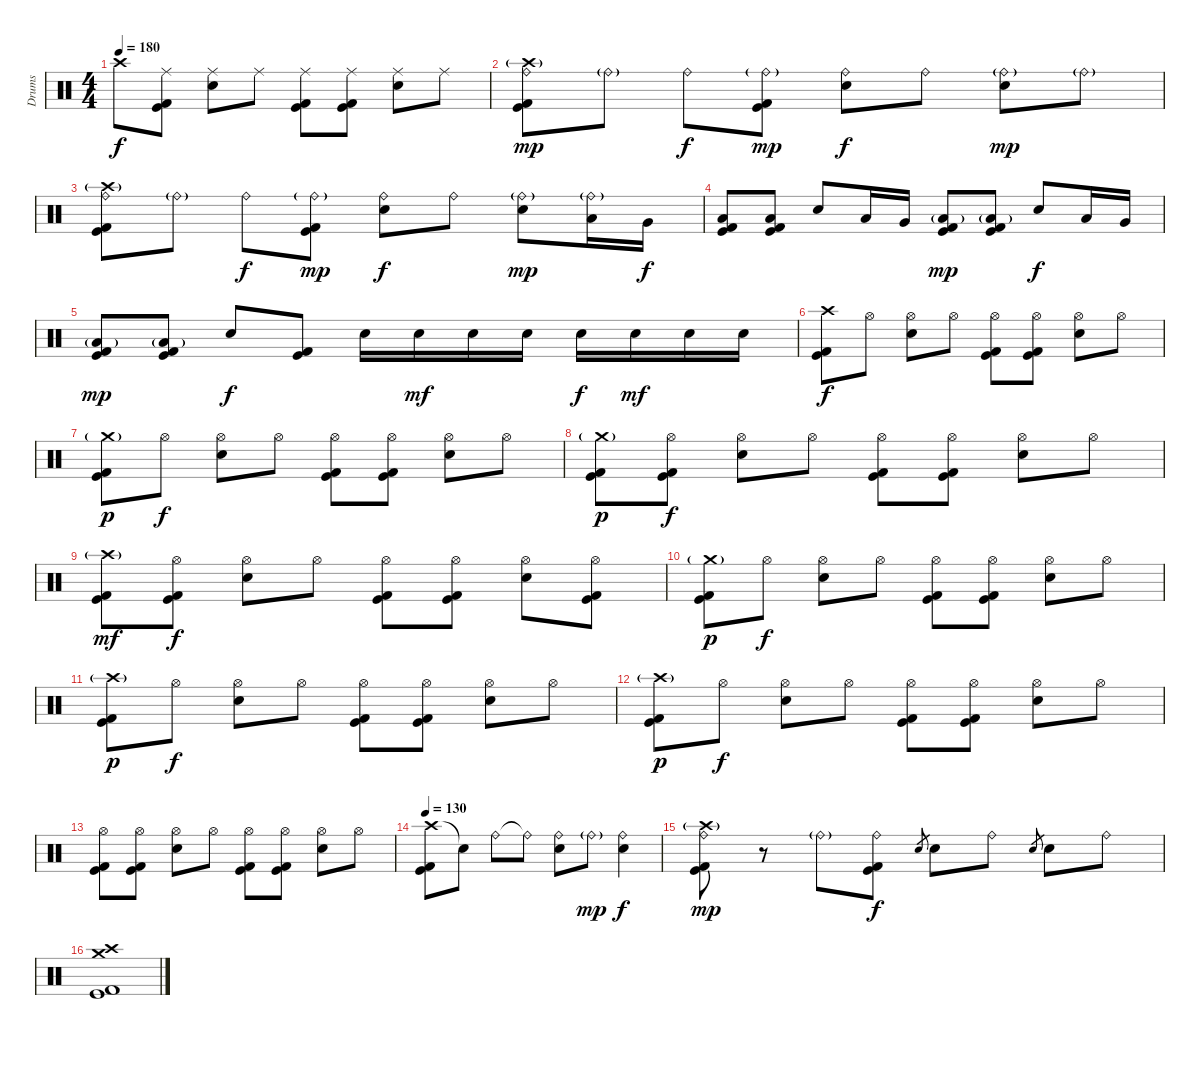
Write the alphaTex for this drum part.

\track ("Drums" "Drums") {instrument percussion}
\staff {score}
\articulation defaults
\ts (4 4)
\tempo 180
\clef neutral
\ks c "Crash high (hit)"{t}.8{dy f}
("Ride (middle)" "Kick (hit) 2" "Kick (hit)").8 ("Ride (middle)" "Electric Snare (hit)").8 "Ride (middle)".8 ("Ride (middle)" "Kick (hit) 2" "Kick (hit)").8 ("Ride (middle)" "Kick (hit) 2" "Kick (hit)").8 ("Ride (middle)" "Electric Snare (hit)").8 "Ride (middle)".8 |
("Ride (bell)" "Crash high (hit)"{g} "Kick (hit) 2" "Kick (hit)").8{dy mp} "Ride (bell)"{g}.8 "Ride (bell)".8{dy f} ("Ride (bell)"{g} "Kick (hit) 2" "Kick (hit)").8{dy mp} ("Ride (bell)" "Electric Snare (hit)").8{dy f} "Ride (bell)".8 ("Ride (bell)"{g} "Electric Snare (hit)").8{dy mp} "Ride (bell)"{g}.8 |
("Ride (bell)" "Crash high (hit)"{g} "Kick (hit) 2" "Kick (hit)").8 "Ride (bell)"{g}.8 "Ride (bell)".8{dy f} ("Ride (bell)"{g} "Kick (hit) 2" "Kick (hit)").8{dy mp} ("Ride (bell)" "Electric Snare (hit)").8{dy f} "Ride (bell)".8 ("Ride (bell)"{g} "Electric Snare (hit)").8{dy mp} ("Ride (bell)"{g} "Low Tom (hit)").16 "Very Low Tom (hit)".16{dy f} |
("Low Floor Tom (hit)" "Kick (hit) 2" "Kick (hit)").8 ("Low Floor Tom (hit)" "Kick (hit) 2" "Kick (hit)").8 "Electric Snare (hit)".8 "Low Tom (hit)".16 "Very Low Tom (hit)".16 ("Low Floor Tom (hit)"{g} "Kick (hit) 2" "Kick (hit)").8{dy mp} ("Low Floor Tom (hit)"{g} "Kick (hit) 2" "Kick (hit)").8 "Electric Snare (hit)".8{dy f} "Low Tom (hit)".16 "Very Low Tom (hit)".16 |
("Low Floor Tom (hit)"{g} "Kick (hit) 2" "Kick (hit)").8{dy mp} ("Low Floor Tom (hit)"{g} "Kick (hit) 2" "Kick (hit)").8 "Electric Snare (hit)".8{dy f} ("Kick (hit) 2" "Kick (hit)").8 "Electric Snare (hit)".16 "Electric Snare (hit)".16{dy mf} "Electric Snare (hit)".16 "Electric Snare (hit)".16 "Electric Snare (hit)".16{dy f} "Electric Snare (hit)".16{dy mf} "Electric Snare (hit)".16 "Electric Snare (hit)".16 |
("Crash high (hit)" "Kick (hit) 2" "Kick (hit)").8{dy f} "Hi-Hat (open)".8 ("Hi-Hat (open)" "Electric Snare (hit)").8 "Hi-Hat (open)".8 ("Hi-Hat (open)" "Kick (hit) 2" "Kick (hit)").8 ("Hi-Hat (open)" "Kick (hit) 2" "Kick (hit)").8 ("Hi-Hat (open)" "Electric Snare (hit)").8 "Hi-Hat (open)".8 |
("Crash medium (hit)"{g} "Kick (hit) 2" "Kick (hit)").8{dy p} "Hi-Hat (open)".8{dy f} ("Hi-Hat (open)" "Electric Snare (hit)").8 "Hi-Hat (open)".8 ("Hi-Hat (open)" "Kick (hit) 2" "Kick (hit)").8 ("Hi-Hat (open)" "Kick (hit) 2" "Kick (hit)").8 ("Hi-Hat (open)" "Electric Snare (hit)").8 "Hi-Hat (open)".8 |
("Crash medium (hit)"{g} "Kick (hit) 2" "Kick (hit)").8{dy p} ("Hi-Hat (open)" "Kick (hit) 2" "Kick (hit)").8{dy f} ("Hi-Hat (open)" "Electric Snare (hit)").8 "Hi-Hat (open)".8 ("Hi-Hat (open)" "Kick (hit) 2" "Kick (hit)").8 ("Hi-Hat (open)" "Kick (hit) 2" "Kick (hit)").8 ("Hi-Hat (open)" "Electric Snare (hit)").8 "Hi-Hat (open)".8 |
("Crash high (hit)"{g} "Kick (hit) 2" "Kick (hit)").8{dy mf} ("Hi-Hat (open)" "Kick (hit) 2" "Kick (hit)").8{dy f} ("Hi-Hat (open)" "Electric Snare (hit)").8 "Hi-Hat (open)".8 ("Hi-Hat (open)" "Kick (hit) 2" "Kick (hit)").8 ("Hi-Hat (open)" "Kick (hit) 2" "Kick (hit)").8 ("Hi-Hat (open)" "Electric Snare (hit)").8 ("Hi-Hat (open)" "Kick (hit) 2" "Kick (hit)").8 |
("Crash medium (hit)"{g} "Kick (hit) 2" "Kick (hit)").8{dy p} "Hi-Hat (open)".8{dy f} ("Hi-Hat (open)" "Electric Snare (hit)").8 "Hi-Hat (open)".8 ("Hi-Hat (open)" "Kick (hit) 2" "Kick (hit)").8 ("Hi-Hat (open)" "Kick (hit) 2" "Kick (hit)").8 ("Hi-Hat (open)" "Electric Snare (hit)").8 "Hi-Hat (open)".8 |
("Crash high (hit)"{g} "Kick (hit) 2" "Kick (hit)").8{dy p} "Hi-Hat (open)".8{dy f} ("Hi-Hat (open)" "Electric Snare (hit)").8 "Hi-Hat (open)".8 ("Hi-Hat (open)" "Kick (hit) 2" "Kick (hit)").8 ("Hi-Hat (open)" "Kick (hit) 2" "Kick (hit)").8 ("Hi-Hat (open)" "Electric Snare (hit)").8 "Hi-Hat (open)".8 |
("Crash high (hit)"{g} "Kick (hit) 2" "Kick (hit)").8{dy p} "Hi-Hat (open)".8{dy f} ("Hi-Hat (open)" "Electric Snare (hit)").8 "Hi-Hat (open)".8 ("Hi-Hat (open)" "Kick (hit) 2" "Kick (hit)").8 ("Hi-Hat (open)" "Kick (hit) 2" "Kick (hit)").8 ("Hi-Hat (open)" "Electric Snare (hit)").8 "Hi-Hat (open)".8 |
("Hi-Hat (open)" "Kick (hit) 2" "Kick (hit)").8 ("Hi-Hat (open)" "Kick (hit) 2" "Kick (hit)").8 ("Hi-Hat (open)" "Electric Snare (hit)").8 "Hi-Hat (open)".8 ("Hi-Hat (open)" "Kick (hit) 2" "Kick (hit)").8 ("Hi-Hat (open)" "Kick (hit) 2" "Kick (hit)").8 ("Hi-Hat (open)" "Electric Snare (hit)").8 "Hi-Hat (open)".8 |
\tempo 130
("Crash high (hit)" "Kick (hit) 2" "Kick (hit)").8 "Snare (hit)"{t}.8 "Ride (bell)".8 "Ride (bell)"{t}.8 ("Ride (bell)" "Electric Snare (hit)").8 "Ride (bell)"{g}.8{dy mp} ("Ride (bell)" "Electric Snare (hit)").4{dy f} |
("Ride (bell)" "Crash high (hit)"{g} "Kick (hit) 2" "Kick (hit)").8{dy mp} r.8 "Ride (bell)"{g}.8 ("Ride (bell)" "Kick (hit) 2" "Kick (hit)").8{dy f} "Electric Snare (hit)".8{gr} "Electric Snare (hit)".8 "Ride (bell)".8 "Electric Snare (hit)".8{gr} "Electric Snare (hit)".8 "Ride (bell)".8 |
("Crash high (hit)" "Crash medium (hit)" "Kick (hit) 2" "Kick (hit)").1
